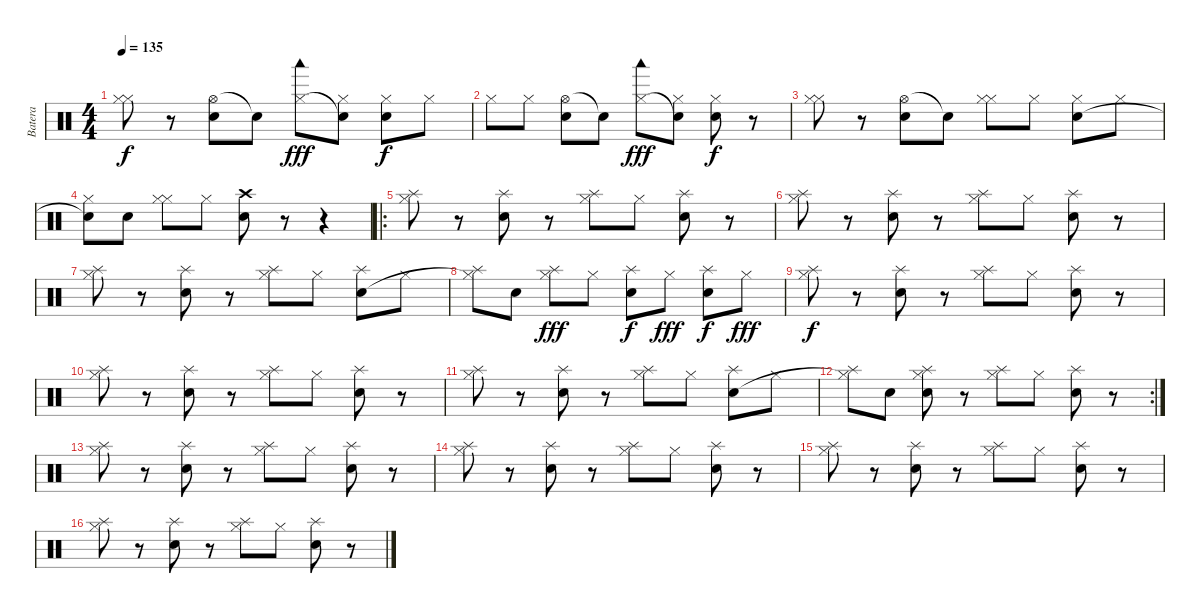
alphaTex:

\track ("Batera" "Batera") {instrument percussion}
\staff {score}
\articulation defaults
\ts (4 4)
\tempo 135
\clef neutral
\ks c
("Hi-Hat (closed)" "Hi-Hat (closed)").8{dy f} r.8 ("Hi-Hat (open)" "Electric Snare (hit)").8 "Snare (hit)"{t}.8 ("Hi-Hat (closed)" "Woodblock low (hit)").8{dy fff} ("Snare (hit)"{t} "Hi-Hat (closed)").8 ("Hi-Hat (closed)" "Electric Snare (hit)").8{dy f} "Hi-Hat (closed)".8 |
"Hi-Hat (closed)".8 "Hi-Hat (closed)".8 ("Hi-Hat (open)" "Electric Snare (hit)").8 "Snare (hit)"{t}.8 ("Hi-Hat (closed)" "Woodblock low (hit)").8{dy fff} ("Snare (hit)"{t} "Hi-Hat (closed)").8 ("Hi-Hat (closed)" "Electric Snare (hit)").8{dy f} r.8 |
("Hi-Hat (closed)" "Hi-Hat (closed)").8 r.8 ("Hi-Hat (open)" "Electric Snare (hit)").8 "Snare (hit)"{t}.8 ("Hi-Hat (closed)" "Hi-Hat (closed)").8 "Hi-Hat (closed)".8 ("Hi-Hat (closed)" "Electric Snare (hit)").8 "Hi-Hat (closed)".8 |
("Hi-Hat (closed)" "Snare (hit)"{t}).8 "Electric Snare (hit)".8 ("Hi-Hat (closed)" "Hi-Hat (closed)").8 "Hi-Hat (closed)".8 ("Crash high (hit)" "Electric Snare (hit)").8 r.8 r.4 |
\ro
("Splash (hit)" "Hi-Hat (closed)").8 r.8 ("Splash (hit)" "Electric Snare (hit)").8 r.8 ("Splash (hit)" "Hi-Hat (closed)").8 "Hi-Hat (closed)".8 ("Splash (hit)" "Electric Snare (hit)").8 r.8 |
("Splash (hit)" "Hi-Hat (closed)").8 r.8 ("Splash (hit)" "Electric Snare (hit)").8 r.8 ("Splash (hit)" "Hi-Hat (closed)").8 "Hi-Hat (closed)".8 ("Splash (hit)" "Electric Snare (hit)").8 r.8 |
("Splash (hit)" "Hi-Hat (closed)").8 r.8 ("Splash (hit)" "Electric Snare (hit)").8 r.8 ("Splash (hit)" "Hi-Hat (closed)").8 "Hi-Hat (closed)".8 ("Splash (hit)" "Electric Snare (hit)").8 "Hi-Hat (closed)".8 |
("Splash (hit)" "Hi-Hat (closed)"{t}).8 "Electric Snare (hit)".8 ("Splash (hit)" "Hi-Hat (closed)").8{dy fff} "Hi-Hat (closed)".8 ("Splash (hit)" "Electric Snare (hit)").8{dy f} "Hi-Hat (closed)".8{dy fff} ("Splash (hit)" "Electric Snare (hit)").8{dy f} "Hi-Hat (closed)".8{dy fff} |
("Splash (hit)" "Hi-Hat (closed)").8{dy f} r.8 ("Splash (hit)" "Electric Snare (hit)").8 r.8 ("Splash (hit)" "Hi-Hat (closed)").8 "Hi-Hat (closed)".8 ("Splash (hit)" "Electric Snare (hit)").8 r.8 |
("Splash (hit)" "Hi-Hat (closed)").8 r.8 ("Splash (hit)" "Electric Snare (hit)").8 r.8 ("Splash (hit)" "Hi-Hat (closed)").8 "Hi-Hat (closed)".8 ("Splash (hit)" "Electric Snare (hit)").8 r.8 |
("Splash (hit)" "Hi-Hat (closed)").8 r.8 ("Splash (hit)" "Electric Snare (hit)").8 r.8 ("Splash (hit)" "Hi-Hat (closed)").8 "Hi-Hat (closed)".8 ("Splash (hit)" "Electric Snare (hit)").8 "Hi-Hat (closed)".8 |
\rc 2
("Splash (hit)" "Hi-Hat (closed)"{t}).8 "Electric Snare (hit)".8 ("Splash (hit)" "Electric Snare (hit)" "Hi-Hat (closed)").8 r.8 ("Splash (hit)" "Hi-Hat (closed)").8 "Hi-Hat (closed)".8 ("Splash (hit)" "Electric Snare (hit)").8 r.8 |
("Splash (hit)" "Hi-Hat (closed)").8 r.8 ("Splash (hit)" "Electric Snare (hit)").8 r.8 ("Splash (hit)" "Hi-Hat (closed)").8 "Hi-Hat (closed)".8 ("Splash (hit)" "Electric Snare (hit)").8 r.8 |
("Splash (hit)" "Hi-Hat (closed)").8 r.8 ("Splash (hit)" "Electric Snare (hit)").8 r.8 ("Splash (hit)" "Hi-Hat (closed)").8 "Hi-Hat (closed)".8 ("Splash (hit)" "Electric Snare (hit)").8 r.8 |
("Splash (hit)" "Hi-Hat (closed)").8 r.8 ("Splash (hit)" "Electric Snare (hit)").8 r.8 ("Splash (hit)" "Hi-Hat (closed)").8 "Hi-Hat (closed)".8 ("Splash (hit)" "Electric Snare (hit)").8 r.8 |
("Splash (hit)" "Hi-Hat (closed)").8 r.8 ("Splash (hit)" "Electric Snare (hit)").8 r.8 ("Splash (hit)" "Hi-Hat (closed)").8 "Hi-Hat (closed)".8 ("Splash (hit)" "Electric Snare (hit)").8 r.8
